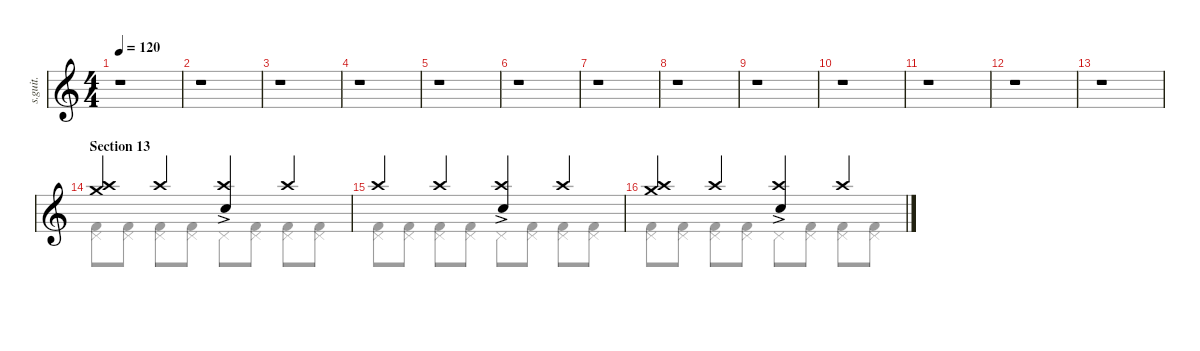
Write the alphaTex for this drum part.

\defaultSystemsLayout 4
\hideDynamics
\bracketExtendMode nobrackets
\track ("Matt Halpern" "s.guit.") {instrument percussion}
\staff {score}
\articulation defaults
\voice
\ts (4 4)
\tempo 120
\clef g2
\ks c
r.1{dy f} |
r.1 |
r.1 |
r.1 |
r.1 |
r.1 |
r.1 |
r.1 |
r.1 |
r.1 |
r.1 |
r.1 |
r.1 |
\section ("" "Section 13")
("Crash medium (hit)" "Crash high (hit)").4{lyrics (0 "") lyrics (1 "") lyrics (2 "") lyrics (3 "") lyrics (4 "")} "Crash high (hit)".4{lyrics (0 "") lyrics (1 "") lyrics (2 "") lyrics (3 "") lyrics (4 "")} ("Crash high (hit)" "Snare (hit) 2"{ac}).4{lyrics (0 "") lyrics (1 "") lyrics (2 "") lyrics (3 "") lyrics (4 "")} "Crash high (hit)".4{lyrics (0 "") lyrics (1 "") lyrics (2 "") lyrics (3 "") lyrics (4 "")} |
"Crash high (hit)".4{lyrics (0 "") lyrics (1 "") lyrics (2 "") lyrics (3 "") lyrics (4 "")} "Crash high (hit)".4{lyrics (0 "") lyrics (1 "") lyrics (2 "") lyrics (3 "") lyrics (4 "")} ("Crash high (hit)" "Snare (hit) 2"{ac}).4{lyrics (0 "") lyrics (1 "") lyrics (2 "") lyrics (3 "") lyrics (4 "")} "Crash high (hit)".4{lyrics (0 "") lyrics (1 "") lyrics (2 "") lyrics (3 "") lyrics (4 "")} |
("Crash medium (hit)" "Crash high (hit)").4{lyrics (0 "") lyrics (1 "") lyrics (2 "") lyrics (3 "") lyrics (4 "")} "Crash high (hit)".4{lyrics (0 "") lyrics (1 "") lyrics (2 "") lyrics (3 "") lyrics (4 "")} ("Crash high (hit)" "Snare (hit) 2"{ac}).4{lyrics (0 "") lyrics (1 "") lyrics (2 "") lyrics (3 "") lyrics (4 "")} "Crash high (hit)".4{lyrics (0 "") lyrics (1 "") lyrics (2 "") lyrics (3 "") lyrics (4 "")}
\voice
\clef g2
\ottava regular
\simile none
\ks c
r.1{dy f} |
r.1 |
r.1 |
r.1 |
r.1 |
r.1 |
r.1 |
r.1 |
r.1 |
r.1 |
r.1 |
r.1 |
r.1 |
("Kick (hit) 2" "Pedal Hi-Hat (hit)").8{lyrics (0 "") lyrics (1 "") lyrics (2 "") lyrics (3 "") lyrics (4 "")} ("Pedal Hi-Hat (hit)" "Kick (hit) 2").8{lyrics (0 "") lyrics (1 "") lyrics (2 "") lyrics (3 "") lyrics (4 "")} ("Pedal Hi-Hat (hit)" "Kick (hit) 2").8{lyrics (0 "") lyrics (1 "") lyrics (2 "") lyrics (3 "") lyrics (4 "")} ("Pedal Hi-Hat (hit)" "Kick (hit) 2").8{lyrics (0 "") lyrics (1 "") lyrics (2 "") lyrics (3 "") lyrics (4 "")} "Pedal Hi-Hat (hit)".8{lyrics (0 "") lyrics (1 "") lyrics (2 "") lyrics (3 "") lyrics (4 "")} ("Pedal Hi-Hat (hit)" "Kick (hit) 2").8{lyrics (0 "") lyrics (1 "") lyrics (2 "") lyrics (3 "") lyrics (4 "")} ("Pedal Hi-Hat (hit)" "Kick (hit) 2").8{lyrics (0 "") lyrics (1 "") lyrics (2 "") lyrics (3 "") lyrics (4 "")} ("Pedal Hi-Hat (hit)" "Kick (hit) 2").8{lyrics (0 "") lyrics (1 "") lyrics (2 "") lyrics (3 "") lyrics (4 "")} |
("Kick (hit) 2" "Pedal Hi-Hat (hit)").8{lyrics (0 "") lyrics (1 "") lyrics (2 "") lyrics (3 "") lyrics (4 "")} ("Pedal Hi-Hat (hit)" "Kick (hit) 2").8{lyrics (0 "") lyrics (1 "") lyrics (2 "") lyrics (3 "") lyrics (4 "")} ("Pedal Hi-Hat (hit)" "Kick (hit) 2").8{lyrics (0 "") lyrics (1 "") lyrics (2 "") lyrics (3 "") lyrics (4 "")} ("Pedal Hi-Hat (hit)" "Kick (hit) 2").8{lyrics (0 "") lyrics (1 "") lyrics (2 "") lyrics (3 "") lyrics (4 "")} "Pedal Hi-Hat (hit)".8{lyrics (0 "") lyrics (1 "") lyrics (2 "") lyrics (3 "") lyrics (4 "")} ("Pedal Hi-Hat (hit)" "Kick (hit) 2").8{lyrics (0 "") lyrics (1 "") lyrics (2 "") lyrics (3 "") lyrics (4 "")} ("Pedal Hi-Hat (hit)" "Kick (hit) 2").8{lyrics (0 "") lyrics (1 "") lyrics (2 "") lyrics (3 "") lyrics (4 "")} ("Pedal Hi-Hat (hit)" "Kick (hit) 2").8{lyrics (0 "") lyrics (1 "") lyrics (2 "") lyrics (3 "") lyrics (4 "")} |
("Kick (hit) 2" "Pedal Hi-Hat (hit)").8{lyrics (0 "") lyrics (1 "") lyrics (2 "") lyrics (3 "") lyrics (4 "")} ("Pedal Hi-Hat (hit)" "Kick (hit) 2").8{lyrics (0 "") lyrics (1 "") lyrics (2 "") lyrics (3 "") lyrics (4 "")} ("Pedal Hi-Hat (hit)" "Kick (hit) 2").8{lyrics (0 "") lyrics (1 "") lyrics (2 "") lyrics (3 "") lyrics (4 "")} ("Pedal Hi-Hat (hit)" "Kick (hit) 2").8{lyrics (0 "") lyrics (1 "") lyrics (2 "") lyrics (3 "") lyrics (4 "")} "Pedal Hi-Hat (hit)".8{lyrics (0 "") lyrics (1 "") lyrics (2 "") lyrics (3 "") lyrics (4 "")} ("Pedal Hi-Hat (hit)" "Kick (hit) 2").8{lyrics (0 "") lyrics (1 "") lyrics (2 "") lyrics (3 "") lyrics (4 "")} ("Pedal Hi-Hat (hit)" "Kick (hit) 2").8{lyrics (0 "") lyrics (1 "") lyrics (2 "") lyrics (3 "") lyrics (4 "")} ("Pedal Hi-Hat (hit)" "Kick (hit) 2").8{lyrics (0 "") lyrics (1 "") lyrics (2 "") lyrics (3 "") lyrics (4 "")}
